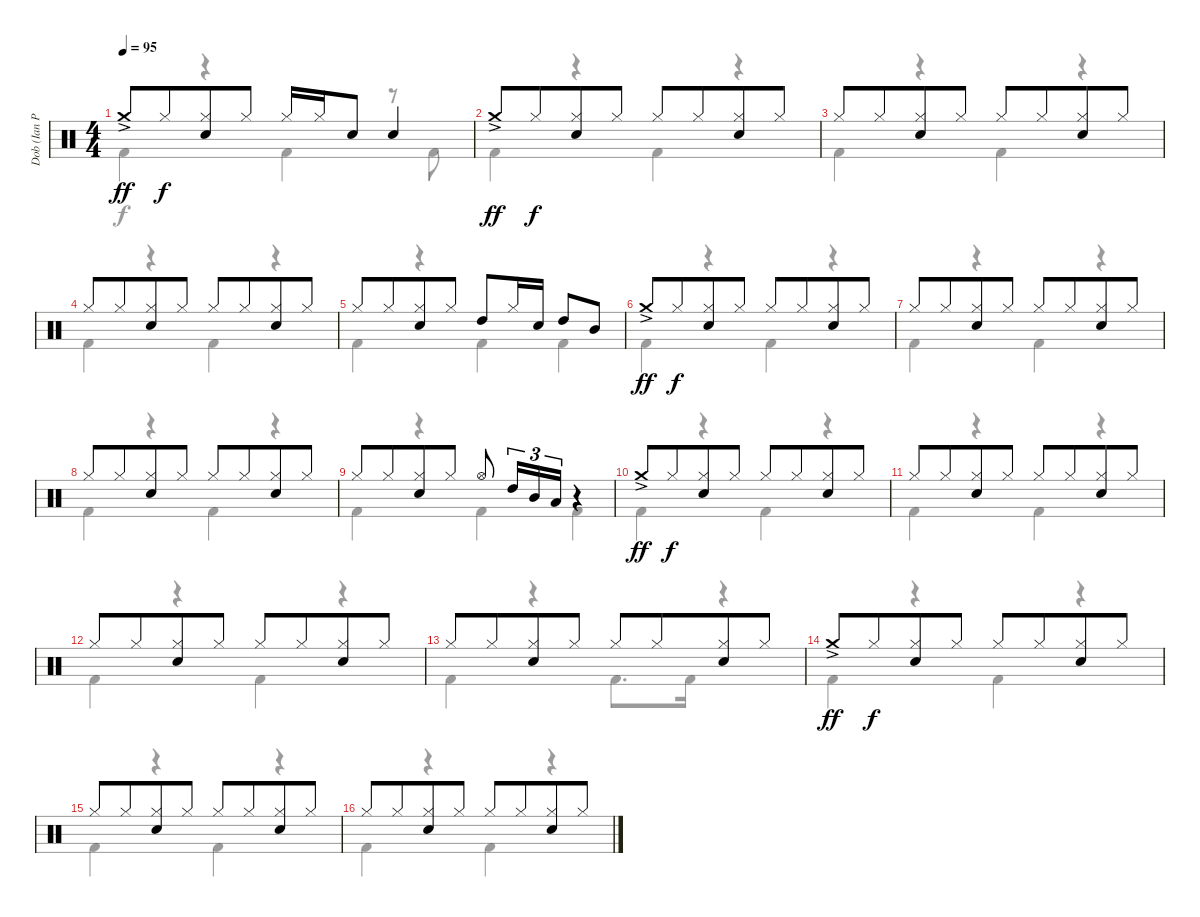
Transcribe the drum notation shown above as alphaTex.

\track ("Dob (Ian Paice)" "Dob (Ian P") {instrument percussion}
\staff {score}
\articulation defaults
\voice
\ts (4 4)
\tempo 95
\clef neutral
\ks c "Crash medium (hit)"{ac}.8{dy ff} "Hi-Hat (closed)".8{dy f beam merge}
("Hi-Hat (closed)" "Electric Snare (hit)").8 "Hi-Hat (closed)".8 "Hi-Hat (closed)".16 "Hi-Hat (closed)".16 "Electric Snare (hit)".8 "Electric Snare (hit)".4 |
"Crash medium (hit)"{ac}.8{dy ff} "Hi-Hat (closed)".8{dy f beam merge} ("Hi-Hat (closed)" "Electric Snare (hit)").8 "Hi-Hat (closed)".8 "Hi-Hat (closed)".8 "Hi-Hat (closed)".8{beam merge} ("Hi-Hat (closed)" "Electric Snare (hit)").8 "Hi-Hat (closed)".8 |
"Hi-Hat (closed)".8 "Hi-Hat (closed)".8{beam merge} ("Hi-Hat (closed)" "Electric Snare (hit)").8 "Hi-Hat (closed)".8 "Hi-Hat (closed)".8 "Hi-Hat (closed)".8{beam merge} ("Hi-Hat (closed)" "Electric Snare (hit)").8 "Hi-Hat (closed)".8 |
"Hi-Hat (closed)".8 "Hi-Hat (closed)".8{beam merge} ("Hi-Hat (closed)" "Electric Snare (hit)").8 "Hi-Hat (closed)".8 "Hi-Hat (closed)".8 "Hi-Hat (closed)".8{beam merge} ("Hi-Hat (closed)" "Electric Snare (hit)").8 "Hi-Hat (closed)".8 |
"Hi-Hat (closed)".8 "Hi-Hat (closed)".8{beam merge} ("Hi-Hat (closed)" "Electric Snare (hit)").8 "Hi-Hat (closed)".8 "High Tom (hit)".8 "Hi-Hat (closed)".16 "Electric Snare (hit)".16 "High Tom (hit)".8 "Mid Tom (hit)".8 |
"Crash medium (hit)"{ac}.8{dy ff} "Hi-Hat (closed)".8{dy f beam merge} ("Hi-Hat (closed)" "Electric Snare (hit)").8 "Hi-Hat (closed)".8 "Hi-Hat (closed)".8 "Hi-Hat (closed)".8{beam merge} ("Hi-Hat (closed)" "Electric Snare (hit)").8 "Hi-Hat (closed)".8 |
"Hi-Hat (closed)".8 "Hi-Hat (closed)".8{beam merge} ("Hi-Hat (closed)" "Electric Snare (hit)").8 "Hi-Hat (closed)".8 "Hi-Hat (closed)".8 "Hi-Hat (closed)".8{beam merge} ("Hi-Hat (closed)" "Electric Snare (hit)").8 "Hi-Hat (closed)".8 |
"Hi-Hat (closed)".8 "Hi-Hat (closed)".8{beam merge} ("Hi-Hat (closed)" "Electric Snare (hit)").8 "Hi-Hat (closed)".8 "Hi-Hat (closed)".8 "Hi-Hat (closed)".8{beam merge} ("Hi-Hat (closed)" "Electric Snare (hit)").8 "Hi-Hat (closed)".8 |
"Hi-Hat (closed)".8 "Hi-Hat (closed)".8{beam merge} ("Hi-Hat (closed)" "Electric Snare (hit)").8 "Hi-Hat (closed)".8 "Hi-Hat (open)".8 "High Tom (hit)".16{tu (3 2)} "Mid Tom (hit)".16{tu (3 2)} "Low Tom (hit)".16{tu (3 2)} r.4 |
"Crash medium (hit)"{ac}.8{dy ff} "Hi-Hat (closed)".8{dy f beam merge} ("Hi-Hat (closed)" "Electric Snare (hit)").8 "Hi-Hat (closed)".8 "Hi-Hat (closed)".8 "Hi-Hat (closed)".8{beam merge} ("Hi-Hat (closed)" "Electric Snare (hit)").8 "Hi-Hat (closed)".8 |
"Hi-Hat (closed)".8 "Hi-Hat (closed)".8{beam merge} ("Hi-Hat (closed)" "Electric Snare (hit)").8 "Hi-Hat (closed)".8 "Hi-Hat (closed)".8 "Hi-Hat (closed)".8{beam merge} ("Hi-Hat (closed)" "Electric Snare (hit)").8 "Hi-Hat (closed)".8 |
"Hi-Hat (closed)".8 "Hi-Hat (closed)".8{beam merge} ("Hi-Hat (closed)" "Electric Snare (hit)").8 "Hi-Hat (closed)".8 "Hi-Hat (closed)".8 "Hi-Hat (closed)".8{beam merge} ("Hi-Hat (closed)" "Electric Snare (hit)").8 "Hi-Hat (closed)".8 |
"Hi-Hat (closed)".8 "Hi-Hat (closed)".8{beam merge} ("Hi-Hat (closed)" "Electric Snare (hit)").8 "Hi-Hat (closed)".8 "Hi-Hat (closed)".8 "Hi-Hat (closed)".8{beam merge} ("Hi-Hat (closed)" "Electric Snare (hit)").8 "Hi-Hat (closed)".8 |
"Crash medium (hit)"{ac}.8{dy ff} "Hi-Hat (closed)".8{dy f beam merge} ("Hi-Hat (closed)" "Electric Snare (hit)").8 "Hi-Hat (closed)".8 "Hi-Hat (closed)".8 "Hi-Hat (closed)".8{beam merge} ("Hi-Hat (closed)" "Electric Snare (hit)").8 "Hi-Hat (closed)".8 |
"Hi-Hat (closed)".8 "Hi-Hat (closed)".8{beam merge} ("Hi-Hat (closed)" "Electric Snare (hit)").8 "Hi-Hat (closed)".8 "Hi-Hat (closed)".8 "Hi-Hat (closed)".8{beam merge} ("Hi-Hat (closed)" "Electric Snare (hit)").8 "Hi-Hat (closed)".8 |
"Hi-Hat (closed)".8 "Hi-Hat (closed)".8{beam merge} ("Hi-Hat (closed)" "Electric Snare (hit)").8 "Hi-Hat (closed)".8 "Hi-Hat (closed)".8 "Hi-Hat (closed)".8{beam merge} ("Hi-Hat (closed)" "Electric Snare (hit)").8 "Hi-Hat (closed)".8
\voice
\clef neutral
\ottava regular
\simile none
\ks c "Kick (hit) 2".4{dy f}
r.4 "Kick (hit) 2".4 r.8 "Kick (hit) 2".8 |
"Kick (hit) 2".4 r.4 "Kick (hit) 2".4 r.4 |
"Kick (hit) 2".4 r.4 "Kick (hit) 2".4 r.4 |
"Kick (hit) 2".4 r.4 "Kick (hit) 2".4 r.4 |
"Kick (hit) 2".4 r.4 "Kick (hit) 2".4 "Kick (hit) 2".4 |
"Kick (hit) 2".4 r.4 "Kick (hit) 2".4 r.4 |
"Kick (hit) 2".4 r.4 "Kick (hit) 2".4 r.4 |
"Kick (hit) 2".4 r.4 "Kick (hit) 2".4 r.4 |
"Kick (hit) 2".4 r.4 "Kick (hit) 2".4 "Kick (hit) 2".4 |
"Kick (hit) 2".4 r.4 "Kick (hit) 2".4 r.4 |
"Kick (hit) 2".4 r.4 "Kick (hit) 2".4 r.4 |
"Kick (hit) 2".4 r.4 "Kick (hit) 2".4 r.4 |
"Kick (hit) 2".4 r.4 "Kick (hit) 2".8{d} "Kick (hit) 2".16 r.4 |
"Kick (hit) 2".4 r.4 "Kick (hit) 2".4 r.4 |
"Kick (hit) 2".4 r.4 "Kick (hit) 2".4 r.4 |
"Kick (hit) 2".4 r.4 "Kick (hit) 2".4 r.4
